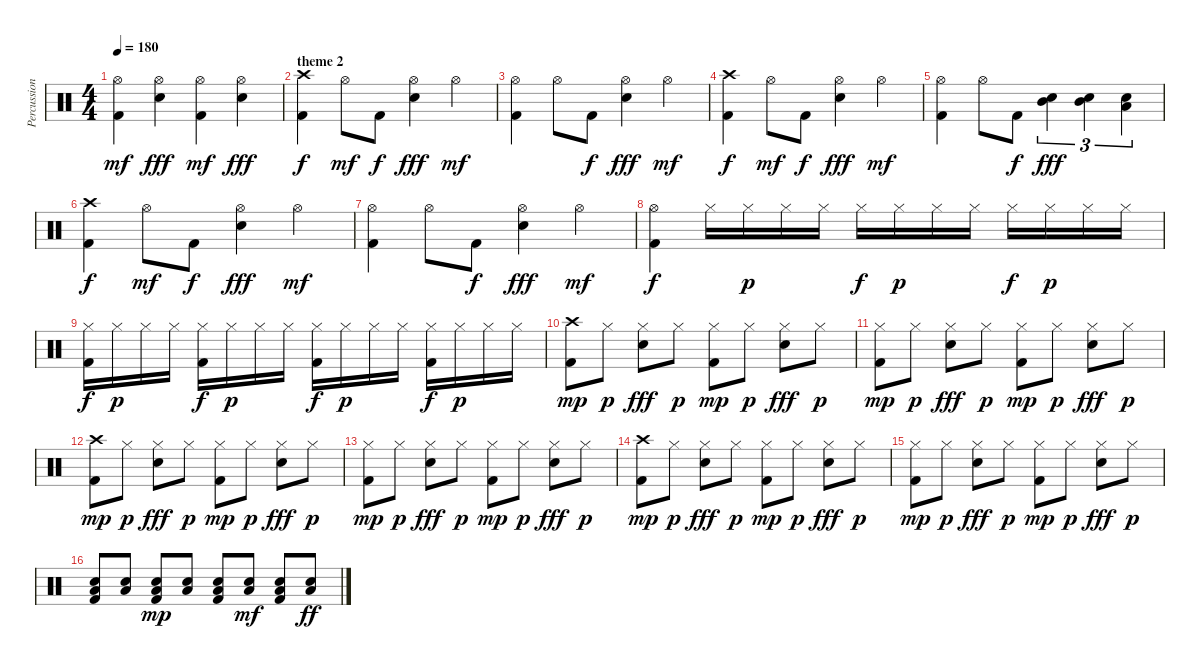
\track ("Percussions" "Percussion") {instrument percussion}
\staff {score}
\articulation defaults
\ts (4 4)
\tempo 180
\clef neutral
\ks c
("Hi-Hat (open)" "Kick (hit) 2").4{dy mf} ("Hi-Hat (open)" "Electric Snare (hit)").4{dy fff} ("Hi-Hat (open)" "Kick (hit) 2").4{dy mf} ("Hi-Hat (open)" "Electric Snare (hit)").4{dy fff} |
\section ("" "theme 2")
("Crash high (hit)" "Kick (hit) 2").4{dy f} "Hi-Hat (open)".8{dy mf} "Kick (hit) 2".8{dy f} ("Hi-Hat (open)" "Electric Snare (hit)").4{dy fff} "Hi-Hat (open)".4{dy mf} |
("Hi-Hat (open)" "Kick (hit) 2").4 "Hi-Hat (open)".8 "Kick (hit) 2".8{dy f} ("Hi-Hat (open)" "Electric Snare (hit)").4{dy fff} "Hi-Hat (open)".4{dy mf} |
("Crash high (hit)" "Kick (hit) 2").4{dy f} "Hi-Hat (open)".8{dy mf} "Kick (hit) 2".8{dy f} ("Hi-Hat (open)" "Electric Snare (hit)").4{dy fff} "Hi-Hat (open)".4{dy mf} |
("Hi-Hat (open)" "Kick (hit) 2").4 "Hi-Hat (open)".8 "Kick (hit) 2".8{dy f} ("Mid Tom (hit)" "Electric Snare (hit)").4{tu (3 2) dy fff} ("Mid Tom (hit)" "Electric Snare (hit)").4{tu (3 2)} ("Low Tom (hit)" "Electric Snare (hit)").4{tu (3 2)} |
("Crash high (hit)" "Kick (hit) 2").4{dy f} "Hi-Hat (open)".8{dy mf} "Kick (hit) 2".8{dy f} ("Hi-Hat (open)" "Electric Snare (hit)").4{dy fff} "Hi-Hat (open)".4{dy mf} |
("Hi-Hat (open)" "Kick (hit) 2").4 "Hi-Hat (open)".8 "Kick (hit) 2".8{dy f} ("Hi-Hat (open)" "Electric Snare (hit)").4{dy fff} "Hi-Hat (open)".4{dy mf} |
("Hi-Hat (open)" "Kick (hit) 2").4{dy f} "Hi-Hat (closed)".16 "Hi-Hat (closed)".16{dy p} "Hi-Hat (closed)".16 "Hi-Hat (closed)".16 "Hi-Hat (closed)".16{dy f} "Hi-Hat (closed)".16{dy p} "Hi-Hat (closed)".16 "Hi-Hat (closed)".16 "Hi-Hat (closed)".16{dy f} "Hi-Hat (closed)".16{dy p} "Hi-Hat (closed)".16 "Hi-Hat (closed)".16 |
("Hi-Hat (closed)" "Kick (hit) 2").16{dy f} "Hi-Hat (closed)".16{dy p} "Hi-Hat (closed)".16 "Hi-Hat (closed)".16 ("Hi-Hat (closed)" "Kick (hit) 2").16{dy f} "Hi-Hat (closed)".16{dy p} "Hi-Hat (closed)".16 "Hi-Hat (closed)".16 ("Hi-Hat (closed)" "Kick (hit) 2").16{dy f} "Hi-Hat (closed)".16{dy p} "Hi-Hat (closed)".16 "Hi-Hat (closed)".16 ("Hi-Hat (closed)" "Kick (hit) 2").16{dy f} "Hi-Hat (closed)".16{dy p} "Hi-Hat (closed)".16 "Hi-Hat (closed)".16 |
("Crash high (hit)" "Kick (hit) 2").8{dy mp} "Hi-Hat (closed)".8{dy p} ("Hi-Hat (closed)" "Electric Snare (hit)").8{dy fff} "Hi-Hat (closed)".8{dy p} ("Hi-Hat (closed)" "Kick (hit) 2").8{dy mp} "Hi-Hat (closed)".8{dy p} ("Hi-Hat (closed)" "Electric Snare (hit)").8{dy fff} "Hi-Hat (closed)".8{dy p} |
("Hi-Hat (closed)" "Kick (hit) 2").8{dy mp} "Hi-Hat (closed)".8{dy p} ("Hi-Hat (closed)" "Electric Snare (hit)").8{dy fff} "Hi-Hat (closed)".8{dy p} ("Hi-Hat (closed)" "Kick (hit) 2").8{dy mp} "Hi-Hat (closed)".8{dy p} ("Hi-Hat (closed)" "Electric Snare (hit)").8{dy fff} "Hi-Hat (closed)".8{dy p} |
("Crash high (hit)" "Kick (hit) 2").8{dy mp} "Hi-Hat (closed)".8{dy p} ("Hi-Hat (closed)" "Electric Snare (hit)").8{dy fff} "Hi-Hat (closed)".8{dy p} ("Hi-Hat (closed)" "Kick (hit) 2").8{dy mp} "Hi-Hat (closed)".8{dy p} ("Hi-Hat (closed)" "Electric Snare (hit)").8{dy fff} "Hi-Hat (closed)".8{dy p} |
("Hi-Hat (closed)" "Kick (hit) 2").8{dy mp} "Hi-Hat (closed)".8{dy p} ("Hi-Hat (closed)" "Electric Snare (hit)").8{dy fff} "Hi-Hat (closed)".8{dy p} ("Hi-Hat (closed)" "Kick (hit) 2").8{dy mp} "Hi-Hat (closed)".8{dy p} ("Hi-Hat (closed)" "Electric Snare (hit)").8{dy fff} "Hi-Hat (closed)".8{dy p} |
("Crash high (hit)" "Kick (hit) 2").8{dy mp} "Hi-Hat (closed)".8{dy p} ("Hi-Hat (closed)" "Electric Snare (hit)").8{dy fff} "Hi-Hat (closed)".8{dy p} ("Hi-Hat (closed)" "Kick (hit) 2").8{dy mp} "Hi-Hat (closed)".8{dy p} ("Hi-Hat (closed)" "Electric Snare (hit)").8{dy fff} "Hi-Hat (closed)".8{dy p} |
("Hi-Hat (closed)" "Kick (hit) 2").8{dy mp} "Hi-Hat (closed)".8{dy p} ("Hi-Hat (closed)" "Electric Snare (hit)").8{dy fff} "Hi-Hat (closed)".8{dy p} ("Hi-Hat (closed)" "Kick (hit) 2").8{dy mp} "Hi-Hat (closed)".8{dy p} ("Hi-Hat (closed)" "Electric Snare (hit)").8{dy fff} "Hi-Hat (closed)".8{dy p} |
("Low Tom (hit)" "Electric Snare (hit)" "Kick (hit) 2").8 ("Low Tom (hit)" "Electric Snare (hit)").8 ("Low Tom (hit)" "Electric Snare (hit)" "Kick (hit) 2").8{dy mp} ("Low Tom (hit)" "Electric Snare (hit)").8 ("Low Tom (hit)" "Electric Snare (hit)" "Kick (hit) 2").8 ("Low Tom (hit)" "Electric Snare (hit)").8{dy mf} ("Low Tom (hit)" "Electric Snare (hit)" "Kick (hit) 2").8 ("Low Tom (hit)" "Electric Snare (hit)").8{dy ff}
